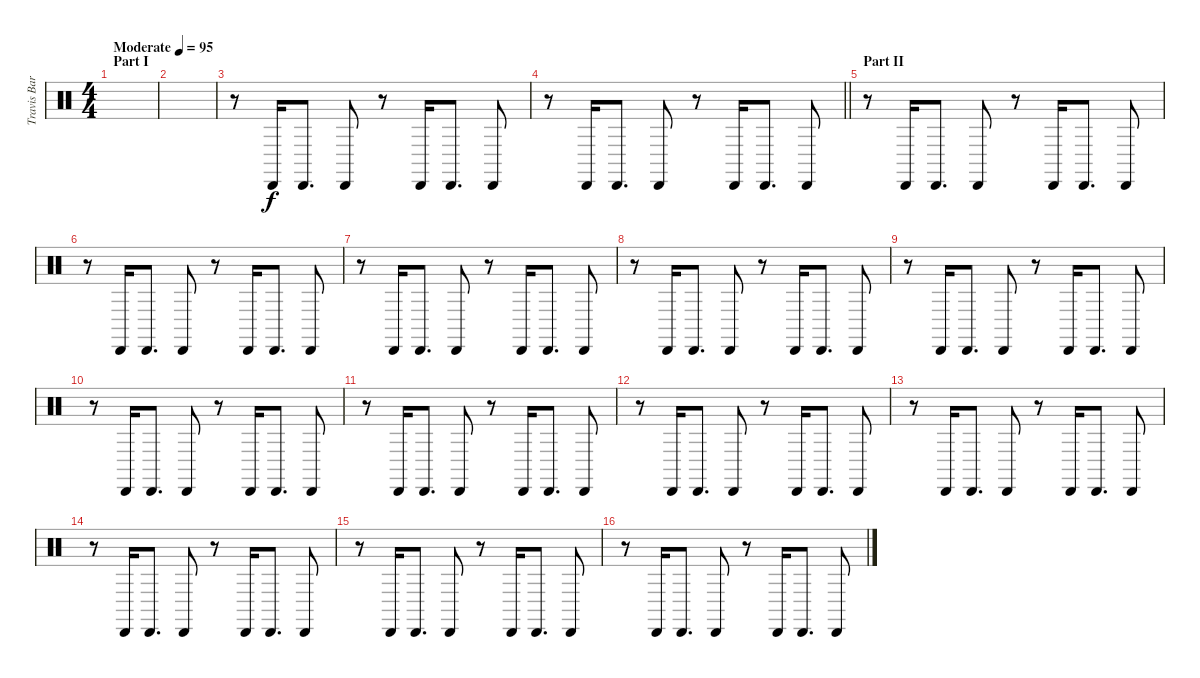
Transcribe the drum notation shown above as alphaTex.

\track ("Travis Barker - Drums Effects" "Travis Bar") {instrument percussion}
\staff {score}
\articulation defaults
\ts (4 4)
\section ("" "Part I")
\tempo (95 "Moderate")
\clef neutral
\ks c
|
|
r.8 "Cabasa (hit)".16 "Cabasa (hit)".8{d} "Cabasa (hit)".8 r.8 "Cabasa (hit)".16 "Cabasa (hit)".8{d} "Cabasa (hit)".8 |
\barLineRight lightlight
r.8 "Cabasa (hit)".16 "Cabasa (hit)".8{d} "Cabasa (hit)".8 r.8 "Cabasa (hit)".16 "Cabasa (hit)".8{d} "Cabasa (hit)".8 |
\section ("" "Part II")
r.8 "Cabasa (hit)".16 "Cabasa (hit)".8{d} "Cabasa (hit)".8 r.8 "Cabasa (hit)".16 "Cabasa (hit)".8{d} "Cabasa (hit)".8 |
r.8 "Cabasa (hit)".16 "Cabasa (hit)".8{d} "Cabasa (hit)".8 r.8 "Cabasa (hit)".16 "Cabasa (hit)".8{d} "Cabasa (hit)".8 |
r.8 "Cabasa (hit)".16 "Cabasa (hit)".8{d} "Cabasa (hit)".8 r.8 "Cabasa (hit)".16 "Cabasa (hit)".8{d} "Cabasa (hit)".8 |
r.8 "Cabasa (hit)".16 "Cabasa (hit)".8{d} "Cabasa (hit)".8 r.8 "Cabasa (hit)".16 "Cabasa (hit)".8{d} "Cabasa (hit)".8 |
r.8 "Cabasa (hit)".16 "Cabasa (hit)".8{d} "Cabasa (hit)".8 r.8 "Cabasa (hit)".16 "Cabasa (hit)".8{d} "Cabasa (hit)".8 |
r.8 "Cabasa (hit)".16 "Cabasa (hit)".8{d} "Cabasa (hit)".8 r.8 "Cabasa (hit)".16 "Cabasa (hit)".8{d} "Cabasa (hit)".8 |
r.8 "Cabasa (hit)".16 "Cabasa (hit)".8{d} "Cabasa (hit)".8 r.8 "Cabasa (hit)".16 "Cabasa (hit)".8{d} "Cabasa (hit)".8 |
r.8 "Cabasa (hit)".16 "Cabasa (hit)".8{d} "Cabasa (hit)".8 r.8 "Cabasa (hit)".16 "Cabasa (hit)".8{d} "Cabasa (hit)".8 |
r.8 "Cabasa (hit)".16 "Cabasa (hit)".8{d} "Cabasa (hit)".8 r.8 "Cabasa (hit)".16 "Cabasa (hit)".8{d} "Cabasa (hit)".8 |
r.8 "Cabasa (hit)".16 "Cabasa (hit)".8{d} "Cabasa (hit)".8 r.8 "Cabasa (hit)".16 "Cabasa (hit)".8{d} "Cabasa (hit)".8 |
r.8 "Cabasa (hit)".16 "Cabasa (hit)".8{d} "Cabasa (hit)".8 r.8 "Cabasa (hit)".16 "Cabasa (hit)".8{d} "Cabasa (hit)".8 |
r.8 "Cabasa (hit)".16 "Cabasa (hit)".8{d} "Cabasa (hit)".8 r.8 "Cabasa (hit)".16 "Cabasa (hit)".8{d} "Cabasa (hit)".8
